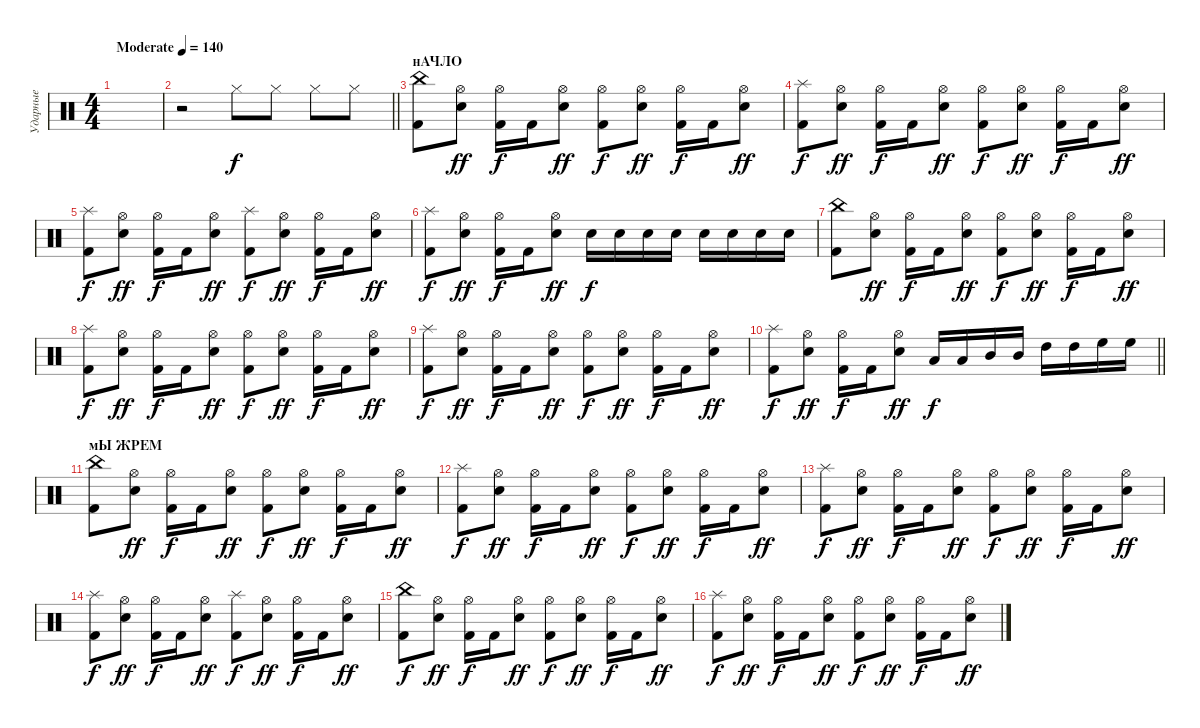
\track ("Ударные" "Ударные") {instrument percussion}
\staff {score}
\articulation defaults
\ts (4 4)
\tempo (140 "Moderate")
\clef neutral
\ks c
|
\barLineRight lightlight
r.2 "Hi-Hat (closed)".8 "Hi-Hat (closed)".8 "Hi-Hat (closed)".8 "Hi-Hat (closed)".8 |
\section ("" "нАЧЛО")
("China (hit)" "Kick (hit) 2").8 ("Hi-Hat (open)" "Electric Snare (hit)").8{dy ff} ("Hi-Hat (open)" "Kick (hit) 2").16{dy f} "Kick (hit) 2".16 ("Hi-Hat (open)" "Electric Snare (hit)").8{dy ff} ("Hi-Hat (open)" "Kick (hit) 2").8{dy f} ("Hi-Hat (open)" "Electric Snare (hit)").8{dy ff} ("Hi-Hat (open)" "Kick (hit) 2").16{dy f} "Kick (hit) 2".16 ("Hi-Hat (open)" "Electric Snare (hit)").8{dy ff} |
("Splash (hit)" "Kick (hit) 2").8{dy f} ("Hi-Hat (open)" "Electric Snare (hit)").8{dy ff} ("Hi-Hat (open)" "Kick (hit) 2").16{dy f} "Kick (hit) 2".16 ("Hi-Hat (open)" "Electric Snare (hit)").8{dy ff} ("Hi-Hat (open)" "Kick (hit) 2").8{dy f} ("Hi-Hat (open)" "Electric Snare (hit)").8{dy ff} ("Hi-Hat (open)" "Kick (hit) 2").16{dy f} "Kick (hit) 2".16 ("Hi-Hat (open)" "Electric Snare (hit)").8{dy ff} |
("Splash (hit)" "Kick (hit) 2").8{dy f} ("Hi-Hat (open)" "Electric Snare (hit)").8{dy ff} ("Hi-Hat (open)" "Kick (hit) 2").16{dy f} "Kick (hit) 2".16 ("Hi-Hat (open)" "Electric Snare (hit)").8{dy ff} ("Splash (hit)" "Kick (hit) 2").8{dy f} ("Hi-Hat (open)" "Electric Snare (hit)").8{dy ff} ("Hi-Hat (open)" "Kick (hit) 2").16{dy f} "Kick (hit) 2".16 ("Hi-Hat (open)" "Electric Snare (hit)").8{dy ff} |
("Splash (hit)" "Kick (hit) 2").8{dy f} ("Hi-Hat (open)" "Electric Snare (hit)").8{dy ff} ("Hi-Hat (open)" "Kick (hit) 2").16{dy f} "Kick (hit) 2".16 ("Hi-Hat (open)" "Electric Snare (hit)").8{dy ff} "Electric Snare (hit)".16{dy f} "Electric Snare (hit)".16 "Electric Snare (hit)".16 "Electric Snare (hit)".16 "Electric Snare (hit)".16 "Electric Snare (hit)".16 "Electric Snare (hit)".16 "Electric Snare (hit)".16 |
("China (hit)" "Kick (hit) 2").8 ("Hi-Hat (open)" "Electric Snare (hit)").8{dy ff} ("Hi-Hat (open)" "Kick (hit) 2").16{dy f} "Kick (hit) 2".16 ("Hi-Hat (open)" "Electric Snare (hit)").8{dy ff} ("Hi-Hat (open)" "Kick (hit) 2").8{dy f} ("Hi-Hat (open)" "Electric Snare (hit)").8{dy ff} ("Hi-Hat (open)" "Kick (hit) 2").16{dy f} "Kick (hit) 2".16 ("Hi-Hat (open)" "Electric Snare (hit)").8{dy ff} |
("Splash (hit)" "Kick (hit) 2").8{dy f} ("Hi-Hat (open)" "Electric Snare (hit)").8{dy ff} ("Hi-Hat (open)" "Kick (hit) 2").16{dy f} "Kick (hit) 2".16 ("Hi-Hat (open)" "Electric Snare (hit)").8{dy ff} ("Hi-Hat (open)" "Kick (hit) 2").8{dy f} ("Hi-Hat (open)" "Electric Snare (hit)").8{dy ff} ("Hi-Hat (open)" "Kick (hit) 2").16{dy f} "Kick (hit) 2".16 ("Hi-Hat (open)" "Electric Snare (hit)").8{dy ff} |
("Splash (hit)" "Kick (hit) 2").8{dy f} ("Hi-Hat (open)" "Electric Snare (hit)").8{dy ff} ("Hi-Hat (open)" "Kick (hit) 2").16{dy f} "Kick (hit) 2".16 ("Hi-Hat (open)" "Electric Snare (hit)").8{dy ff} ("Hi-Hat (open)" "Kick (hit) 2").8{dy f} ("Hi-Hat (open)" "Electric Snare (hit)").8{dy ff} ("Hi-Hat (open)" "Kick (hit) 2").16{dy f} "Kick (hit) 2".16 ("Hi-Hat (open)" "Electric Snare (hit)").8{dy ff} |
\barLineRight lightlight
("Splash (hit)" "Kick (hit) 2").8{dy f} ("Hi-Hat (open)" "Electric Snare (hit)").8{dy ff} ("Hi-Hat (open)" "Kick (hit) 2").16{dy f} "Kick (hit) 2".16 ("Hi-Hat (open)" "Electric Snare (hit)").8{dy ff} "Low Tom (hit)".16{dy f} "Low Tom (hit)".16 "Mid Tom (hit)".16 "Mid Tom (hit)".16 "High Tom (hit)".16 "High Tom (hit)".16 "High Floor Tom (hit)".16 "High Floor Tom (hit)".16 |
\section ("" "мЫ ЖРЕМ")
("China (hit)" "Kick (hit) 2").8 ("Hi-Hat (open)" "Electric Snare (hit)").8{dy ff} ("Hi-Hat (open)" "Kick (hit) 2").16{dy f} "Kick (hit) 2".16 ("Hi-Hat (open)" "Electric Snare (hit)").8{dy ff} ("Hi-Hat (open)" "Kick (hit) 2").8{dy f} ("Hi-Hat (open)" "Electric Snare (hit)").8{dy ff} ("Hi-Hat (open)" "Kick (hit) 2").16{dy f} "Kick (hit) 2".16 ("Hi-Hat (open)" "Electric Snare (hit)").8{dy ff} |
("Splash (hit)" "Kick (hit) 2").8{dy f} ("Hi-Hat (open)" "Electric Snare (hit)").8{dy ff} ("Hi-Hat (open)" "Kick (hit) 2").16{dy f} "Kick (hit) 2".16 ("Hi-Hat (open)" "Electric Snare (hit)").8{dy ff} ("Hi-Hat (open)" "Kick (hit) 2").8{dy f} ("Hi-Hat (open)" "Electric Snare (hit)").8{dy ff} ("Hi-Hat (open)" "Kick (hit) 2").16{dy f} "Kick (hit) 2".16 ("Hi-Hat (open)" "Electric Snare (hit)").8{dy ff} |
("Splash (hit)" "Kick (hit) 2").8{dy f} ("Hi-Hat (open)" "Electric Snare (hit)").8{dy ff} ("Hi-Hat (open)" "Kick (hit) 2").16{dy f} "Kick (hit) 2".16 ("Hi-Hat (open)" "Electric Snare (hit)").8{dy ff} ("Hi-Hat (open)" "Kick (hit) 2").8{dy f} ("Hi-Hat (open)" "Electric Snare (hit)").8{dy ff} ("Hi-Hat (open)" "Kick (hit) 2").16{dy f} "Kick (hit) 2".16 ("Hi-Hat (open)" "Electric Snare (hit)").8{dy ff} |
("Splash (hit)" "Kick (hit) 2").8{dy f} ("Hi-Hat (open)" "Electric Snare (hit)").8{dy ff} ("Hi-Hat (open)" "Kick (hit) 2").16{dy f} "Kick (hit) 2".16 ("Hi-Hat (open)" "Electric Snare (hit)").8{dy ff} ("Splash (hit)" "Kick (hit) 2").8{dy f} ("Hi-Hat (open)" "Electric Snare (hit)").8{dy ff} ("Hi-Hat (open)" "Kick (hit) 2").16{dy f} "Kick (hit) 2".16 ("Hi-Hat (open)" "Electric Snare (hit)").8{dy ff} |
("China (hit)" "Kick (hit) 2").8{dy f} ("Hi-Hat (open)" "Electric Snare (hit)").8{dy ff} ("Hi-Hat (open)" "Kick (hit) 2").16{dy f} "Kick (hit) 2".16 ("Hi-Hat (open)" "Electric Snare (hit)").8{dy ff} ("Hi-Hat (open)" "Kick (hit) 2").8{dy f} ("Hi-Hat (open)" "Electric Snare (hit)").8{dy ff} ("Hi-Hat (open)" "Kick (hit) 2").16{dy f} "Kick (hit) 2".16 ("Hi-Hat (open)" "Electric Snare (hit)").8{dy ff} |
("Splash (hit)" "Kick (hit) 2").8{dy f} ("Hi-Hat (open)" "Electric Snare (hit)").8{dy ff} ("Hi-Hat (open)" "Kick (hit) 2").16{dy f} "Kick (hit) 2".16 ("Hi-Hat (open)" "Electric Snare (hit)").8{dy ff} ("Hi-Hat (open)" "Kick (hit) 2").8{dy f} ("Hi-Hat (open)" "Electric Snare (hit)").8{dy ff} ("Hi-Hat (open)" "Kick (hit) 2").16{dy f} "Kick (hit) 2".16 ("Hi-Hat (open)" "Electric Snare (hit)").8{dy ff}
